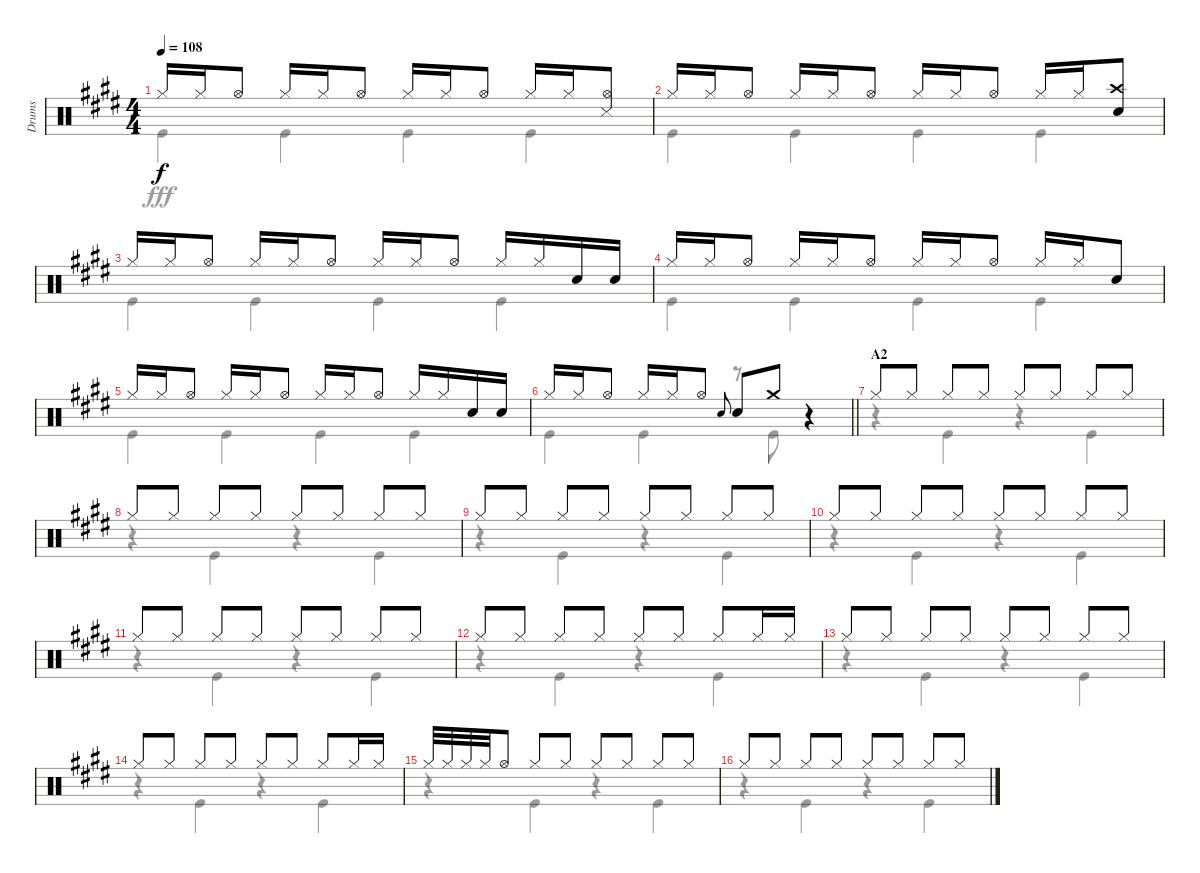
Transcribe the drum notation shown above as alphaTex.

\track ("Drums" "Drums") {instrument percussion}
\staff {score}
\articulation defaults
\voice
\ts (4 4)
\tempo 108
\clef neutral
\ks e "Hi-Hat (closed)".16{dy f} "Hi-Hat (closed)".16 "Hi-Hat (open)".8 "Hi-Hat (closed)".16 "Hi-Hat (closed)".16 "Hi-Hat (open)".8 "Hi-Hat (closed)".16 "Hi-Hat (closed)".16 "Hi-Hat (open)".8 "Hi-Hat (closed)".16 "Hi-Hat (closed)".16
("Hi-Hat (open)" "Snare (side stick) 3").8 |
"Hi-Hat (closed)".16 "Hi-Hat (closed)".16 "Hi-Hat (open)".8 "Hi-Hat (closed)".16 "Hi-Hat (closed)".16 "Hi-Hat (open)".8 "Hi-Hat (closed)".16 "Hi-Hat (closed)".16 "Hi-Hat (open)".8 "Hi-Hat (closed)".16 "Hi-Hat (closed)".16 ("Crash high (hit)" "Snare (hit) 2").8 |
"Hi-Hat (closed)".16 "Hi-Hat (closed)".16 "Hi-Hat (open)".8 "Hi-Hat (closed)".16 "Hi-Hat (closed)".16 "Hi-Hat (open)".8 "Hi-Hat (closed)".16 "Hi-Hat (closed)".16 "Hi-Hat (open)".8 "Hi-Hat (closed)".16 "Hi-Hat (closed)".16 "Snare (hit) 2".16 "Snare (hit) 2".16 |
"Hi-Hat (closed)".16 "Hi-Hat (closed)".16 "Hi-Hat (open)".8 "Hi-Hat (closed)".16 "Hi-Hat (closed)".16 "Hi-Hat (open)".8 "Hi-Hat (closed)".16 "Hi-Hat (closed)".16 "Hi-Hat (open)".8 "Hi-Hat (closed)".16 "Hi-Hat (closed)".16 "Snare (hit) 2".8 |
"Hi-Hat (closed)".16 "Hi-Hat (closed)".16 "Hi-Hat (open)".8 "Hi-Hat (closed)".16 "Hi-Hat (closed)".16 "Hi-Hat (open)".8 "Hi-Hat (closed)".16 "Hi-Hat (closed)".16 "Hi-Hat (open)".8 "Hi-Hat (closed)".16 "Hi-Hat (closed)".16 "Snare (hit) 2".16 "Snare (hit) 2".16 |
\barLineRight lightlight "Hi-Hat (closed)".16 "Hi-Hat (closed)".16 "Hi-Hat (open)".8 "Hi-Hat (closed)".16 "Hi-Hat (closed)".16 "Hi-Hat (open)".8 "Snare (hit) 2".8{gr onbeat} "Snare (hit) 2".8 "Crash medium (hit)".8
r.4 |
\section ("" "A2")
"Hi-Hat (closed)".8 "Hi-Hat (closed)".8 "Hi-Hat (closed)".8 "Hi-Hat (closed)".8 "Hi-Hat (closed)".8 "Hi-Hat (closed)".8 "Hi-Hat (closed)".8 "Hi-Hat (closed)".8 |
"Hi-Hat (closed)".8 "Hi-Hat (closed)".8 "Hi-Hat (closed)".8 "Hi-Hat (closed)".8 "Hi-Hat (closed)".8 "Hi-Hat (closed)".8 "Hi-Hat (closed)".8 "Hi-Hat (closed)".8 |
"Hi-Hat (closed)".8 "Hi-Hat (closed)".8 "Hi-Hat (closed)".8 "Hi-Hat (closed)".8 "Hi-Hat (closed)".8 "Hi-Hat (closed)".8 "Hi-Hat (closed)".8 "Hi-Hat (closed)".8 |
"Hi-Hat (closed)".8 "Hi-Hat (closed)".8 "Hi-Hat (closed)".8 "Hi-Hat (closed)".8 "Hi-Hat (closed)".8 "Hi-Hat (closed)".8 "Hi-Hat (closed)".8 "Hi-Hat (closed)".8 |
"Hi-Hat (closed)".8 "Hi-Hat (closed)".8 "Hi-Hat (closed)".8 "Hi-Hat (closed)".8 "Hi-Hat (closed)".8 "Hi-Hat (closed)".8 "Hi-Hat (closed)".8 "Hi-Hat (closed)".8 |
"Hi-Hat (closed)".8 "Hi-Hat (closed)".8 "Hi-Hat (closed)".8 "Hi-Hat (closed)".8 "Hi-Hat (closed)".8 "Hi-Hat (closed)".8 "Hi-Hat (closed)".8 "Hi-Hat (closed)".16 "Hi-Hat (closed)".16 |
"Hi-Hat (closed)".8 "Hi-Hat (closed)".8 "Hi-Hat (closed)".8 "Hi-Hat (closed)".8 "Hi-Hat (closed)".8 "Hi-Hat (closed)".8 "Hi-Hat (closed)".8 "Hi-Hat (closed)".8 |
"Hi-Hat (closed)".8 "Hi-Hat (closed)".8 "Hi-Hat (closed)".8 "Hi-Hat (closed)".8 "Hi-Hat (closed)".8 "Hi-Hat (closed)".8 "Hi-Hat (closed)".8 "Hi-Hat (closed)".16 "Hi-Hat (closed)".16 |
"Hi-Hat (closed)".32 "Hi-Hat (closed)".32 "Hi-Hat (closed)".32 "Hi-Hat (closed)".32 "Hi-Hat (open)".8 "Hi-Hat (closed)".8 "Hi-Hat (closed)".8 "Hi-Hat (closed)".8 "Hi-Hat (closed)".8 "Hi-Hat (closed)".8 "Hi-Hat (closed)".8 |
"Hi-Hat (closed)".8 "Hi-Hat (closed)".8 "Hi-Hat (closed)".8 "Hi-Hat (closed)".8 "Hi-Hat (closed)".8 "Hi-Hat (closed)".8 "Hi-Hat (closed)".8 "Hi-Hat (closed)".8
\voice
\clef neutral
\ottava regular
\simile none
\ks e "Kick (hit)".4{dy fff} "Kick (hit)".4 "Kick (hit)".4 "Kick (hit)".4
|
"Kick (hit)".4 "Kick (hit)".4 "Kick (hit)".4 "Kick (hit)".4 |
"Kick (hit)".4 "Kick (hit)".4 "Kick (hit)".4 "Kick (hit)".4 |
"Kick (hit)".4 "Kick (hit)".4 "Kick (hit)".4 "Kick (hit)".4 |
"Kick (hit)".4 "Kick (hit)".4 "Kick (hit)".4 "Kick (hit)".4 |
\barLineRight lightlight "Kick (hit)".4 "Kick (hit)".4
r.8 "Kick (hit)".8 r.4 |
r.4 "Kick (hit)".4 r.4 "Kick (hit)".4 |
r.4 "Kick (hit)".4 r.4 "Kick (hit)".4 |
r.4 "Kick (hit)".4 r.4 "Kick (hit)".4 |
r.4 "Kick (hit)".4 r.4 "Kick (hit)".4 |
r.4 "Kick (hit)".4 r.4 "Kick (hit)".4 |
r.4 "Kick (hit)".4 r.4 "Kick (hit)".4 |
r.4 "Kick (hit)".4 r.4 "Kick (hit)".4 |
r.4 "Kick (hit)".4 r.4 "Kick (hit)".4 |
r.4 "Kick (hit)".4 r.4 "Kick (hit)".4 |
r.4 "Kick (hit)".4 r.4 "Kick (hit)".4
